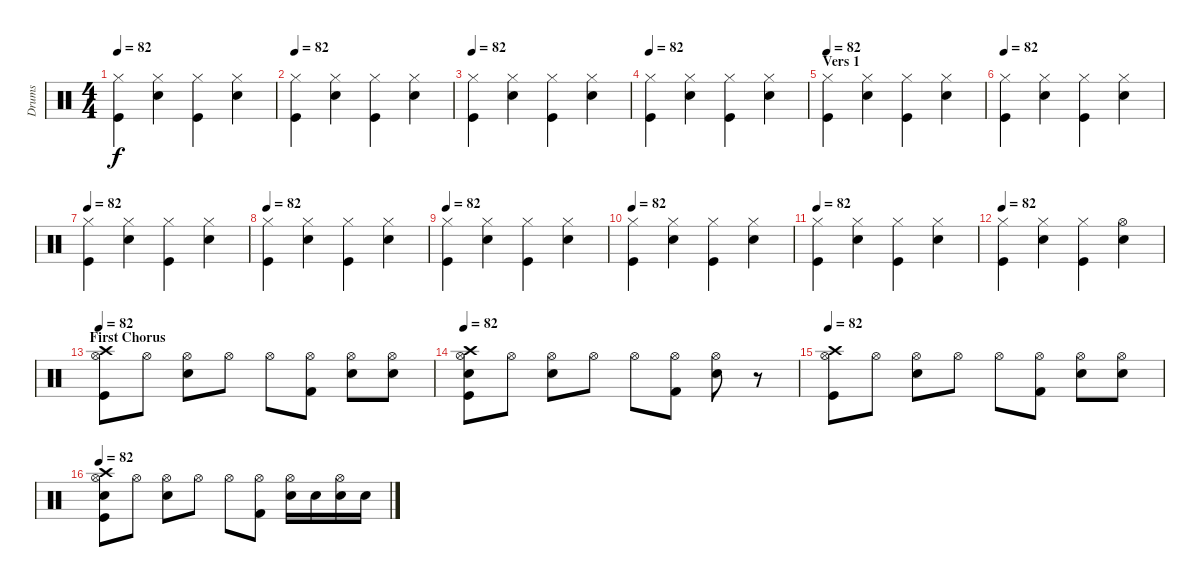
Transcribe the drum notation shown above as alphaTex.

\track ("Drums" "Drums") {instrument percussion}
\staff {score}
\articulation defaults
\ts (4 4)
\tempo 82
\clef neutral
\ks c
("Hi-Hat (closed)" "Kick (hit)").4{dy f} ("Hi-Hat (closed)" "Snare (hit) 2").4 ("Hi-Hat (closed)" "Kick (hit)").4 ("Hi-Hat (closed)" "Snare (hit) 2").4 |
\tempo 82
("Hi-Hat (closed)" "Kick (hit)").4 ("Hi-Hat (closed)" "Snare (hit) 2").4 ("Hi-Hat (closed)" "Kick (hit)").4 ("Hi-Hat (closed)" "Snare (hit) 2").4 |
\tempo 82
("Hi-Hat (closed)" "Kick (hit)").4 ("Hi-Hat (closed)" "Snare (hit) 2").4 ("Hi-Hat (closed)" "Kick (hit)").4 ("Hi-Hat (closed)" "Snare (hit) 2").4 |
\tempo 82
("Hi-Hat (closed)" "Kick (hit)").4 ("Hi-Hat (closed)" "Snare (hit) 2").4 ("Hi-Hat (closed)" "Kick (hit)").4 ("Hi-Hat (closed)" "Snare (hit) 2").4 |
\section ("" "Vers 1")
\tempo 82
("Hi-Hat (closed)" "Kick (hit)").4 ("Hi-Hat (closed)" "Snare (hit) 2").4 ("Hi-Hat (closed)" "Kick (hit)").4 ("Hi-Hat (closed)" "Snare (hit) 2").4 |
\tempo 82
("Hi-Hat (closed)" "Kick (hit)").4 ("Hi-Hat (closed)" "Snare (hit) 2").4 ("Hi-Hat (closed)" "Kick (hit)").4 ("Hi-Hat (closed)" "Snare (hit) 2").4 |
\tempo 82
("Hi-Hat (closed)" "Kick (hit)").4 ("Hi-Hat (closed)" "Snare (hit) 2").4 ("Hi-Hat (closed)" "Kick (hit)").4 ("Hi-Hat (closed)" "Snare (hit) 2").4 |
\tempo 82
("Hi-Hat (closed)" "Kick (hit)").4 ("Hi-Hat (closed)" "Snare (hit) 2").4 ("Hi-Hat (closed)" "Kick (hit)").4 ("Hi-Hat (closed)" "Snare (hit) 2").4 |
\tempo 82
("Hi-Hat (closed)" "Kick (hit)").4 ("Hi-Hat (closed)" "Snare (hit) 2").4 ("Hi-Hat (closed)" "Kick (hit)").4 ("Hi-Hat (closed)" "Snare (hit) 2").4 |
\tempo 82
("Hi-Hat (closed)" "Kick (hit)").4 ("Hi-Hat (closed)" "Snare (hit) 2").4 ("Hi-Hat (closed)" "Kick (hit)").4 ("Hi-Hat (closed)" "Snare (hit) 2").4 |
\tempo 82
("Hi-Hat (closed)" "Kick (hit)").4 ("Hi-Hat (closed)" "Snare (hit) 2").4 ("Hi-Hat (closed)" "Kick (hit)").4 ("Hi-Hat (closed)" "Snare (hit) 2").4 |
\tempo 82
("Hi-Hat (closed)" "Kick (hit)").4 ("Hi-Hat (closed)" "Snare (hit) 2").4 ("Hi-Hat (closed)" "Kick (hit)").4 ("Hi-Hat (open)" "Snare (hit) 2").4 |
\section ("" "First Chorus")
\tempo 82
("Hi-Hat (open)" "Crash high (hit)" "Kick (hit)").8 "Hi-Hat (open)".8 ("Hi-Hat (open)" "Snare (hit) 2").8 "Hi-Hat (open)".8 "Hi-Hat (open)".8 ("Hi-Hat (open)" "Kick (hit) 2").8 ("Hi-Hat (open)" "Snare (hit) 2").8 ("Hi-Hat (open)" "Snare (hit) 2").8 |
\tempo 82
("Hi-Hat (open)" "Crash high (hit)" "Snare (hit) 2" "Kick (hit)").8 "Hi-Hat (open)".8 ("Hi-Hat (open)" "Snare (hit) 2").8 "Hi-Hat (open)".8 "Hi-Hat (open)".8 ("Hi-Hat (open)" "Kick (hit) 2").8 ("Hi-Hat (open)" "Snare (hit) 2").8 r.8 |
\tempo 82
("Hi-Hat (open)" "Crash high (hit)" "Kick (hit)").8 "Hi-Hat (open)".8 ("Hi-Hat (open)" "Snare (hit) 2").8 "Hi-Hat (open)".8 "Hi-Hat (open)".8 ("Hi-Hat (open)" "Kick (hit) 2").8 ("Hi-Hat (open)" "Snare (hit) 2").8 ("Hi-Hat (open)" "Snare (hit) 2").8 |
\tempo 82
("Hi-Hat (open)" "Crash high (hit)" "Snare (hit) 2" "Kick (hit)").8 "Hi-Hat (open)".8 ("Hi-Hat (open)" "Snare (hit) 2").8 "Hi-Hat (open)".8 "Hi-Hat (open)".8 ("Hi-Hat (open)" "Kick (hit) 2").8 ("Hi-Hat (open)" "Snare (hit) 2").16 "Snare (hit) 2".16 ("Hi-Hat (open)" "Snare (hit) 2").16 "Snare (hit) 2".16
